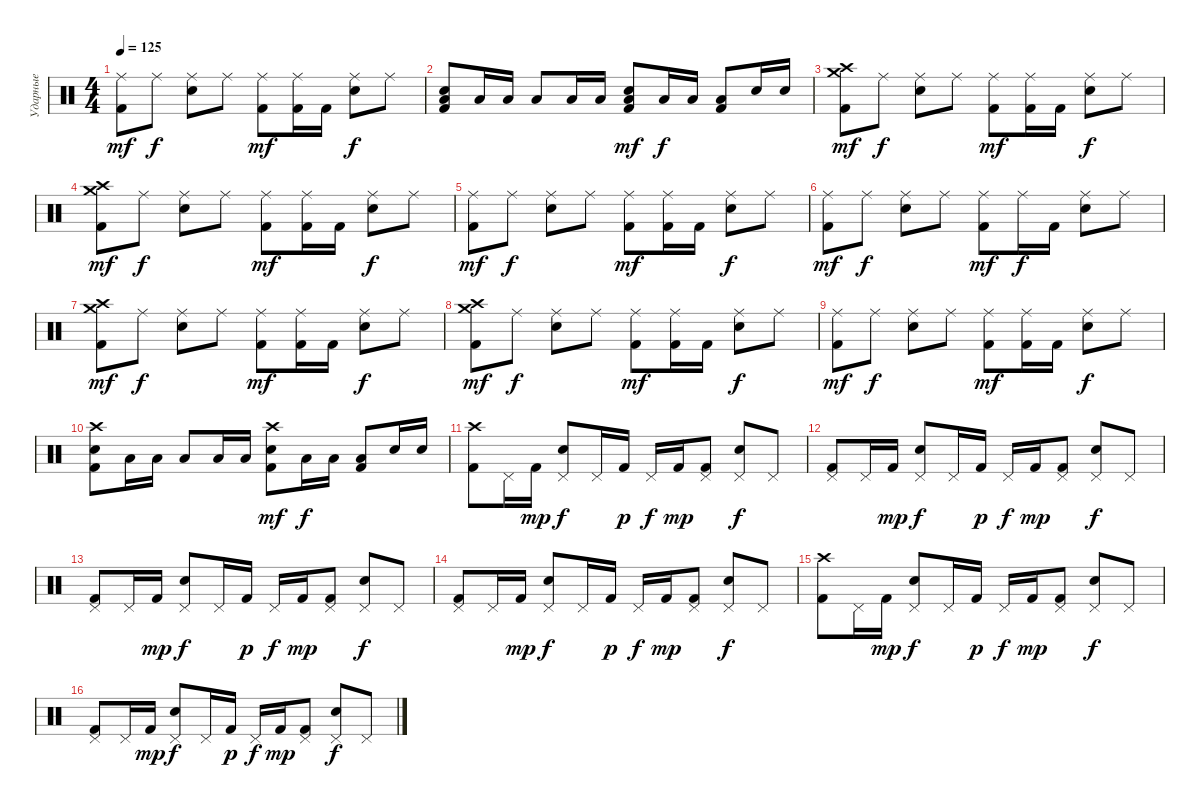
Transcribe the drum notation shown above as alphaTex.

\track ("Ударные" "Ударные") {instrument percussion}
\staff {score}
\articulation defaults
\ts (4 4)
\tempo 125
\clef neutral
\ks c
("Ride (middle)" "Kick (hit) 2").8{dy mf} "Ride (middle)".8{dy f} ("Ride (middle)" "Snare (hit) 2").8 "Ride (middle)".8 ("Ride (middle)" "Kick (hit) 2").8{dy mf} ("Ride (middle)" "Kick (hit) 2").16 "Kick (hit) 2".16 ("Ride (middle)" "Snare (hit) 2").8{dy f} "Ride (middle)".8 |
("Snare (hit) 2" "Kick (hit) 2" "Low Floor Tom (hit)").8 "Low Floor Tom (hit)".16 "Low Floor Tom (hit)".16 "Low Floor Tom (hit)".8 "Low Floor Tom (hit)".16 "Low Floor Tom (hit)".16 ("Snare (hit) 2" "Kick (hit) 2" "Low Floor Tom (hit)").8{dy mf} "Low Floor Tom (hit)".16{dy f} "Low Floor Tom (hit)".16 ("Kick (hit) 2" "Low Floor Tom (hit)").8 "Snare (hit) 2".16 "Snare (hit) 2".16 |
("Crash high (hit)" "Crash medium (hit)" "Kick (hit) 2").8{dy mf} "Ride (middle)".8{dy f} ("Ride (middle)" "Snare (hit) 2").8 "Ride (middle)".8 ("Ride (middle)" "Kick (hit) 2").8{dy mf} ("Ride (middle)" "Kick (hit) 2").16 "Kick (hit) 2".16 ("Ride (middle)" "Snare (hit) 2").8{dy f} "Ride (middle)".8 |
("Crash high (hit)" "Crash medium (hit)" "Kick (hit) 2").8{dy mf} "Ride (middle)".8{dy f} ("Ride (middle)" "Snare (hit) 2").8 "Ride (middle)".8 ("Ride (middle)" "Kick (hit) 2").8{dy mf} ("Ride (middle)" "Kick (hit) 2").16 "Kick (hit) 2".16 ("Ride (middle)" "Snare (hit) 2").8{dy f} "Ride (middle)".8 |
("Ride (middle)" "Kick (hit) 2").8{dy mf} "Ride (middle)".8{dy f} ("Ride (middle)" "Snare (hit) 2").8 "Ride (middle)".8 ("Ride (middle)" "Kick (hit) 2").8{dy mf} ("Ride (middle)" "Kick (hit) 2").16 "Kick (hit) 2".16 ("Ride (middle)" "Snare (hit) 2").8{dy f} "Ride (middle)".8 |
("Ride (middle)" "Kick (hit) 2").8{dy mf} "Ride (middle)".8{dy f} ("Ride (middle)" "Snare (hit) 2").8 "Ride (middle)".8 ("Ride (middle)" "Kick (hit) 2").8{dy mf} "Ride (middle)".16{dy f} "Kick (hit) 2".16 ("Ride (middle)" "Snare (hit) 2").8 "Ride (middle)".8 |
("Crash high (hit)" "Crash medium (hit)" "Kick (hit) 2").8{dy mf} "Ride (middle)".8{dy f} ("Ride (middle)" "Snare (hit) 2").8 "Ride (middle)".8 ("Ride (middle)" "Kick (hit) 2").8{dy mf} ("Ride (middle)" "Kick (hit) 2").16 "Kick (hit) 2".16 ("Ride (middle)" "Snare (hit) 2").8{dy f} "Ride (middle)".8 |
("Crash high (hit)" "Crash medium (hit)" "Kick (hit) 2").8{dy mf} "Ride (middle)".8{dy f} ("Ride (middle)" "Snare (hit) 2").8 "Ride (middle)".8 ("Ride (middle)" "Kick (hit) 2").8{dy mf} ("Ride (middle)" "Kick (hit) 2").16 "Kick (hit) 2".16 ("Ride (middle)" "Snare (hit) 2").8{dy f} "Ride (middle)".8 |
("Ride (middle)" "Kick (hit) 2").8{dy mf} "Ride (middle)".8{dy f} ("Ride (middle)" "Snare (hit) 2").8 "Ride (middle)".8 ("Ride (middle)" "Kick (hit) 2").8{dy mf} ("Ride (middle)" "Kick (hit) 2").16 "Kick (hit) 2".16 ("Ride (middle)" "Snare (hit) 2").8{dy f} "Ride (middle)".8 |
("Crash high (hit)" "Snare (hit) 2" "Kick (hit) 2").8 "Low Floor Tom (hit)".16 "Low Floor Tom (hit)".16 "Low Floor Tom (hit)".8 "Low Floor Tom (hit)".16 "Low Floor Tom (hit)".16 ("Crash high (hit)" "Snare (hit) 2" "Kick (hit) 2").8{dy mf} "Low Floor Tom (hit)".16{dy f} "Low Floor Tom (hit)".16 ("Kick (hit) 2" "Low Floor Tom (hit)").8 "Snare (hit) 2".16 "Snare (hit) 2".16 |
("Crash high (hit)" "Kick (hit) 2").8 "Pedal Hi-Hat (hit)".16 "Kick (hit) 2".16{dy mp} ("Pedal Hi-Hat (hit)" "Snare (hit) 2").8{dy f} "Pedal Hi-Hat (hit)".16 "Kick (hit) 2".16{dy p} "Pedal Hi-Hat (hit)".16{dy f} "Kick (hit) 2".16{dy mp} ("Pedal Hi-Hat (hit)" "Kick (hit) 2").8 ("Pedal Hi-Hat (hit)" "Snare (hit) 2").8{dy f} "Pedal Hi-Hat (hit)".8 |
("Pedal Hi-Hat (hit)" "Kick (hit) 2").8 "Pedal Hi-Hat (hit)".16 "Kick (hit) 2".16{dy mp} ("Pedal Hi-Hat (hit)" "Snare (hit) 2").8{dy f} "Pedal Hi-Hat (hit)".16 "Kick (hit) 2".16{dy p} "Pedal Hi-Hat (hit)".16{dy f} "Kick (hit) 2".16{dy mp} ("Pedal Hi-Hat (hit)" "Kick (hit) 2").8 ("Pedal Hi-Hat (hit)" "Snare (hit) 2").8{dy f} "Pedal Hi-Hat (hit)".8 |
("Pedal Hi-Hat (hit)" "Kick (hit) 2").8 "Pedal Hi-Hat (hit)".16 "Kick (hit) 2".16{dy mp} ("Pedal Hi-Hat (hit)" "Snare (hit) 2").8{dy f} "Pedal Hi-Hat (hit)".16 "Kick (hit) 2".16{dy p} "Pedal Hi-Hat (hit)".16{dy f} "Kick (hit) 2".16{dy mp} ("Pedal Hi-Hat (hit)" "Kick (hit) 2").8 ("Pedal Hi-Hat (hit)" "Snare (hit) 2").8{dy f} "Pedal Hi-Hat (hit)".8 |
("Pedal Hi-Hat (hit)" "Kick (hit) 2").8 "Pedal Hi-Hat (hit)".16 "Kick (hit) 2".16{dy mp} ("Pedal Hi-Hat (hit)" "Snare (hit) 2").8{dy f} "Pedal Hi-Hat (hit)".16 "Kick (hit) 2".16{dy p} "Pedal Hi-Hat (hit)".16{dy f} "Kick (hit) 2".16{dy mp} ("Pedal Hi-Hat (hit)" "Kick (hit) 2").8 ("Pedal Hi-Hat (hit)" "Snare (hit) 2").8{dy f} "Pedal Hi-Hat (hit)".8 |
("Crash high (hit)" "Kick (hit) 2").8 "Pedal Hi-Hat (hit)".16 "Kick (hit) 2".16{dy mp} ("Pedal Hi-Hat (hit)" "Snare (hit) 2").8{dy f} "Pedal Hi-Hat (hit)".16 "Kick (hit) 2".16{dy p} "Pedal Hi-Hat (hit)".16{dy f} "Kick (hit) 2".16{dy mp} ("Pedal Hi-Hat (hit)" "Kick (hit) 2").8 ("Pedal Hi-Hat (hit)" "Snare (hit) 2").8{dy f} "Pedal Hi-Hat (hit)".8 |
("Pedal Hi-Hat (hit)" "Kick (hit) 2").8 "Pedal Hi-Hat (hit)".16 "Kick (hit) 2".16{dy mp} ("Pedal Hi-Hat (hit)" "Snare (hit) 2").8{dy f} "Pedal Hi-Hat (hit)".16 "Kick (hit) 2".16{dy p} "Pedal Hi-Hat (hit)".16{dy f} "Kick (hit) 2".16{dy mp} ("Pedal Hi-Hat (hit)" "Kick (hit) 2").8 ("Pedal Hi-Hat (hit)" "Snare (hit) 2").8{dy f} "Pedal Hi-Hat (hit)".8
